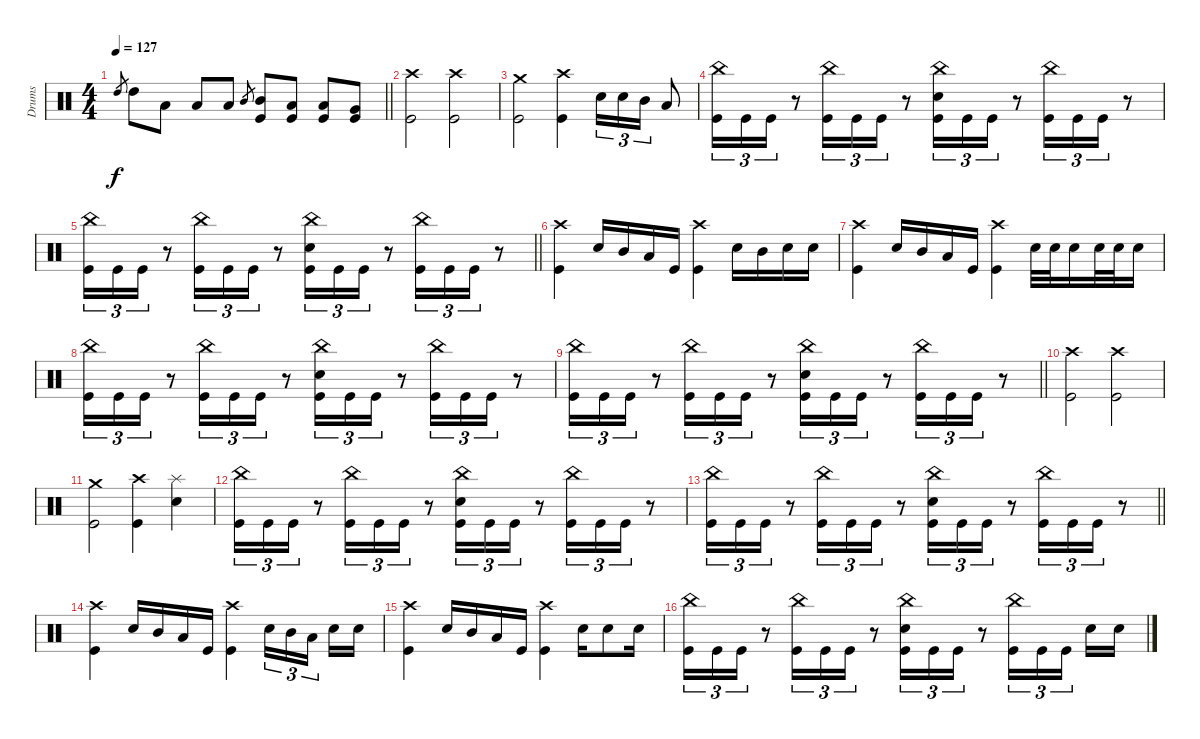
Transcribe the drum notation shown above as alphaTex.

\track ("Drums" "Drums") {instrument percussion}
\staff
\articulation defaults
\ts (4 4)
\tempo 127
\clef neutral
\barLineRight lightlight
\ks c "High Tom (hit)".8{gr dy f} "High Tom (hit)".8 "Low Tom (hit)".8 "Low Tom (hit)".8 "Low Tom (hit)".8 "Mid Tom (hit)".8{gr}
("Mid Tom (hit)" "Kick (hit)").8 ("Low Tom (hit)" "Kick (hit)").8 ("Low Tom (hit)" "Kick (hit)").8 ("Very Low Tom (hit)" "Kick (hit)").8 |
\section ("" "")
("Crash high (hit)" "Kick (hit)").2 ("Crash high (hit)" "Kick (hit)").2 |
("Crash medium (hit)" "Kick (hit)").2 ("Crash high (hit)" "Kick (hit)").4 "Electric Snare (hit)".16{tu (3 2)} "Electric Snare (hit)".16{tu (3 2)} "Mid Tom (hit)".16{tu (3 2)} "Low Tom (hit)".8 |
("China (hit)" "Kick (hit)").16{tu (3 2)} "Kick (hit)".16{tu (3 2)} "Kick (hit)".16{tu (3 2)} r.8 ("China (hit)" "Kick (hit)").16{tu (3 2)} "Kick (hit)".16{tu (3 2)} "Kick (hit)".16{tu (3 2)} r.8 ("China (hit)" "Electric Snare (hit)" "Kick (hit)").16{tu (3 2)} "Kick (hit)".16{tu (3 2)} "Kick (hit)".16{tu (3 2)} r.8 ("China (hit)" "Kick (hit)").16{tu (3 2)} "Kick (hit)".16{tu (3 2)} "Kick (hit)".16{tu (3 2)} r.8 |
\barLineRight lightlight
("China (hit)" "Kick (hit)").16{tu (3 2)} "Kick (hit)".16{tu (3 2)} "Kick (hit)".16{tu (3 2)} r.8 ("China (hit)" "Kick (hit)").16{tu (3 2)} "Kick (hit)".16{tu (3 2)} "Kick (hit)".16{tu (3 2)} r.8 ("China (hit)" "Electric Snare (hit)" "Kick (hit)").16{tu (3 2)} "Kick (hit)".16{tu (3 2)} "Kick (hit)".16{tu (3 2)} r.8 ("China (hit)" "Kick (hit)").16{tu (3 2)} "Kick (hit)".16{tu (3 2)} "Kick (hit)".16{tu (3 2)} r.8 |
("Crash high (hit)" "Kick (hit)").4 "Electric Snare (hit)".16 "Mid Tom (hit)".16 "Low Tom (hit)".16 "Kick (hit)".16 ("Crash high (hit)" "Kick (hit)").4 "Electric Snare (hit)".16 "Mid Tom (hit)".16 "Electric Snare (hit)".16 "Electric Snare (hit)".16 |
("Crash high (hit)" "Kick (hit)").4 "Electric Snare (hit)".16 "Mid Tom (hit)".16 "Low Tom (hit)".16 "Kick (hit)".16 ("Crash high (hit)" "Kick (hit)").4 "Electric Snare (hit)".32 "Electric Snare (hit)".32 "Electric Snare (hit)".16 "Electric Snare (hit)".32 "Electric Snare (hit)".32 "Electric Snare (hit)".16 |
("China (hit)" "Kick (hit)").16{tu (3 2)} "Kick (hit)".16{tu (3 2)} "Kick (hit)".16{tu (3 2)} r.8 ("China (hit)" "Kick (hit)").16{tu (3 2)} "Kick (hit)".16{tu (3 2)} "Kick (hit)".16{tu (3 2)} r.8 ("China (hit)" "Electric Snare (hit)" "Kick (hit)").16{tu (3 2)} "Kick (hit)".16{tu (3 2)} "Kick (hit)".16{tu (3 2)} r.8 ("China (hit)" "Kick (hit)").16{tu (3 2)} "Kick (hit)".16{tu (3 2)} "Kick (hit)".16{tu (3 2)} r.8 |
\barLineRight lightlight
("China (hit)" "Kick (hit)").16{tu (3 2)} "Kick (hit)".16{tu (3 2)} "Kick (hit)".16{tu (3 2)} r.8 ("China (hit)" "Kick (hit)").16{tu (3 2)} "Kick (hit)".16{tu (3 2)} "Kick (hit)".16{tu (3 2)} r.8 ("China (hit)" "Electric Snare (hit)" "Kick (hit)").16{tu (3 2)} "Kick (hit)".16{tu (3 2)} "Kick (hit)".16{tu (3 2)} r.8 ("China (hit)" "Kick (hit)").16{tu (3 2)} "Kick (hit)".16{tu (3 2)} "Kick (hit)".16{tu (3 2)} r.8 |
("Crash high (hit)" "Kick (hit)").2 ("Crash high (hit)" "Kick (hit)").2 |
("Crash medium (hit)" "Kick (hit)").2 ("Crash high (hit)" "Kick (hit)").4 ("Splash (hit)" "Electric Snare (hit)").4 |
("China (hit)" "Kick (hit)").16{tu (3 2)} "Kick (hit)".16{tu (3 2)} "Kick (hit)".16{tu (3 2)} r.8 ("China (hit)" "Kick (hit)").16{tu (3 2)} "Kick (hit)".16{tu (3 2)} "Kick (hit)".16{tu (3 2)} r.8 ("China (hit)" "Electric Snare (hit)" "Kick (hit)").16{tu (3 2)} "Kick (hit)".16{tu (3 2)} "Kick (hit)".16{tu (3 2)} r.8 ("China (hit)" "Kick (hit)").16{tu (3 2)} "Kick (hit)".16{tu (3 2)} "Kick (hit)".16{tu (3 2)} r.8 |
\barLineRight lightlight
("China (hit)" "Kick (hit)").16{tu (3 2)} "Kick (hit)".16{tu (3 2)} "Kick (hit)".16{tu (3 2)} r.8 ("China (hit)" "Kick (hit)").16{tu (3 2)} "Kick (hit)".16{tu (3 2)} "Kick (hit)".16{tu (3 2)} r.8 ("China (hit)" "Electric Snare (hit)" "Kick (hit)").16{tu (3 2)} "Kick (hit)".16{tu (3 2)} "Kick (hit)".16{tu (3 2)} r.8 ("China (hit)" "Kick (hit)").16{tu (3 2)} "Kick (hit)".16{tu (3 2)} "Kick (hit)".16{tu (3 2)} r.8 |
("Crash high (hit)" "Kick (hit)").4 "Electric Snare (hit)".16 "Mid Tom (hit)".16 "Low Tom (hit)".16 "Kick (hit)".16 ("Crash high (hit)" "Kick (hit)").4 "Electric Snare (hit)".16{tu (3 2)} "Mid Tom (hit)".16{tu (3 2)} "Low Tom (hit)".16{tu (3 2) beam splitsecondary} "Electric Snare (hit)".16 "Electric Snare (hit)".16 |
("Crash high (hit)" "Kick (hit)").4 "Electric Snare (hit)".16 "Mid Tom (hit)".16 "Low Tom (hit)".16 "Kick (hit)".16 ("Crash high (hit)" "Kick (hit)").4 "Electric Snare (hit)".16 "Electric Snare (hit)".8 "Electric Snare (hit)".16 |
("China (hit)" "Kick (hit)").16{tu (3 2)} "Kick (hit)".16{tu (3 2)} "Kick (hit)".16{tu (3 2)} r.8 ("China (hit)" "Kick (hit)").16{tu (3 2)} "Kick (hit)".16{tu (3 2)} "Kick (hit)".16{tu (3 2)} r.8 ("China (hit)" "Electric Snare (hit)" "Kick (hit)").16{tu (3 2)} "Kick (hit)".16{tu (3 2)} "Kick (hit)".16{tu (3 2)} r.8 ("China (hit)" "Kick (hit)").16{tu (3 2)} "Kick (hit)".16{tu (3 2)} "Kick (hit)".16{tu (3 2) beam splitsecondary} "Electric Snare (hit)".16 "Electric Snare (hit)".16
